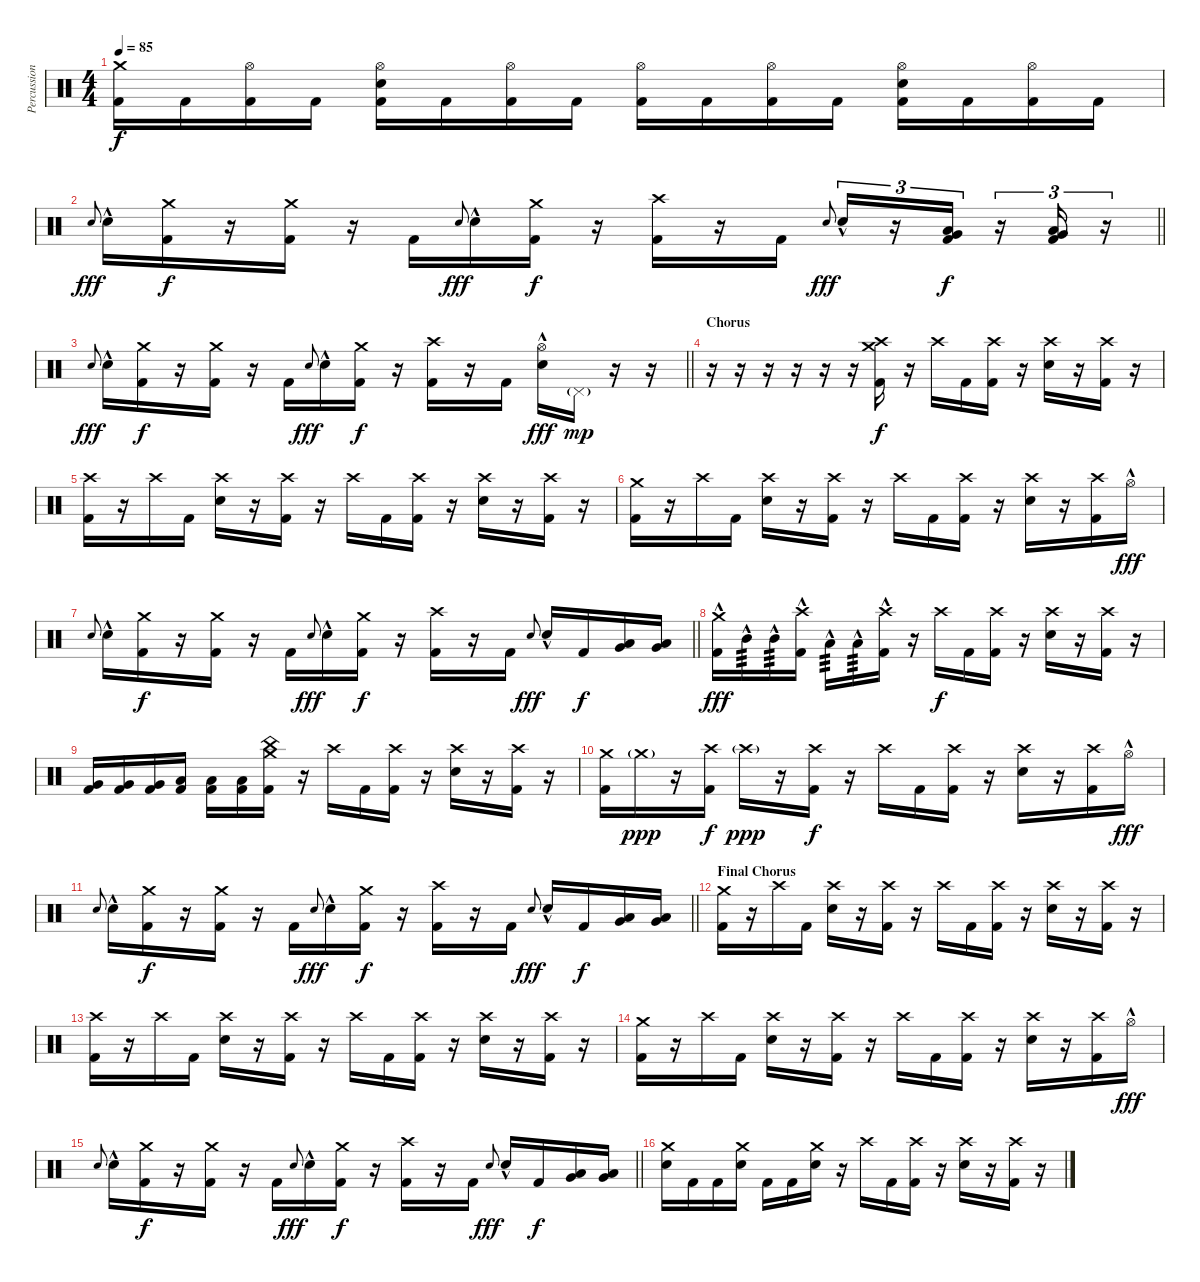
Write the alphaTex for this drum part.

\track ("Percussion" "Percussion") {instrument percussion}
\staff {score}
\articulation defaults
\ts (4 4)
\tempo 85
\clef neutral
\ks c
("Crash medium (hit)" "Kick (hit) 2").16{dy f} "Kick (hit) 2".16 ("Hi-Hat (open)" "Kick (hit) 2").16 "Kick (hit) 2".16 ("Hi-Hat (open)" "Snare (hit) 2" "Kick (hit) 2").16 "Kick (hit) 2".16 ("Hi-Hat (open)" "Kick (hit) 2").16 "Kick (hit) 2".16 ("Hi-Hat (open)" "Kick (hit) 2").16 "Kick (hit) 2".16 ("Hi-Hat (open)" "Kick (hit) 2").16 "Kick (hit) 2".16 ("Hi-Hat (open)" "Snare (hit) 2" "Kick (hit) 2").16 "Kick (hit) 2".16 ("Hi-Hat (open)" "Kick (hit) 2").16 "Kick (hit) 2".16 |
\barLineRight lightlight "Snare (hit) 2".8{gr onbeat dy fff} "Snare (hit) 2"{hac}.16
("Crash medium (hit)" "Kick (hit) 2").16{dy f} r.16 ("Crash medium (hit)" "Kick (hit) 2").16 r.16 "Kick (hit) 2".16 "Snare (hit) 2".8{gr onbeat dy fff} "Snare (hit) 2"{hac}.16 ("Crash medium (hit)" "Kick (hit) 2").16{dy f} r.16 ("Crash high (hit)" "Kick (hit) 2").16 r.16 "Kick (hit) 2".16 "Snare (hit) 2".8{gr onbeat dy fff} "Snare (hit) 2"{hac}.16{tu (3 2)} r.16{tu (3 2)} ("Low Tom (hit)" "Very Low Tom (hit)" "Kick (hit) 2").16{tu (3 2) dy f} r.16{tu (3 2)} ("Very Low Tom (hit)" "Low Floor Tom (hit)" "Kick (hit) 2").16{tu (3 2)} r.16{tu (3 2)} |
\barLineRight lightlight "Snare (hit) 2".8{gr onbeat dy fff} "Snare (hit) 2"{hac}.16
("Crash medium (hit)" "Kick (hit) 2").16{dy f} r.16 ("Crash medium (hit)" "Kick (hit) 2").16 r.16 "Kick (hit) 2".16 "Snare (hit) 2".8{gr onbeat dy fff} "Snare (hit) 2"{hac}.16 ("Crash medium (hit)" "Kick (hit) 2").16{dy f} r.16 ("Crash high (hit)" "Kick (hit) 2").16 r.16 "Kick (hit) 2".16 ("Hi-Hat (open)" "Snare (hit) 2"{hac}).16{dy fff} "Pedal Hi-Hat (hit)"{g}.16{dy mp} r.16 r.16 |
\section ("" "Chorus")
r.16 r.16 r.16 r.16 r.16 r.16 ("Crash medium (hit)" "Crash high (hit)" "Kick (hit) 2").16{dy f} r.16 "Crash high (hit)".16 "Kick (hit) 2".16 ("Crash high (hit)" "Kick (hit) 2").16 r.16 ("Crash high (hit)" "Snare (hit) 2").16 r.16 ("Crash high (hit)" "Kick (hit) 2").16 r.16 |
("Crash high (hit)" "Kick (hit) 2").16 r.16 "Crash high (hit)".16 "Kick (hit) 2".16 ("Crash high (hit)" "Snare (hit) 2").16 r.16 ("Crash high (hit)" "Kick (hit) 2").16 r.16 "Crash high (hit)".16 "Kick (hit) 2".16 ("Crash high (hit)" "Kick (hit) 2").16 r.16 ("Crash high (hit)" "Snare (hit) 2").16 r.16 ("Crash high (hit)" "Kick (hit) 2").16 r.16 |
("Crash medium (hit)" "Kick (hit) 2").16 r.16 "Crash high (hit)".16 "Kick (hit) 2".16 ("Crash high (hit)" "Snare (hit) 2").16 r.16 ("Crash high (hit)" "Kick (hit) 2").16 r.16 "Crash high (hit)".16 "Kick (hit) 2".16 ("Crash high (hit)" "Kick (hit) 2").16 r.16 ("Crash high (hit)" "Snare (hit) 2").16 r.16 ("Crash high (hit)" "Kick (hit) 2").16 "Hi-Hat (open)"{hac}.16{dy fff} |
\barLineRight lightlight "Snare (hit) 2".8{gr onbeat} "Snare (hit) 2"{hac}.16
("Crash medium (hit)" "Kick (hit) 2").16{dy f} r.16 ("Crash medium (hit)" "Kick (hit) 2").16 r.16 "Kick (hit) 2".16 "Snare (hit) 2".8{gr onbeat dy fff} "Snare (hit) 2"{hac}.16 ("Crash medium (hit)" "Kick (hit) 2").16{dy f} r.16 ("Crash high (hit)" "Kick (hit) 2").16 r.16 "Kick (hit) 2".16 "Snare (hit) 2".8{gr onbeat dy fff} "Snare (hit) 2"{hac}.16 "Kick (hit) 2".16{dy f} ("Very Low Tom (hit)" "Low Floor Tom (hit)").16 ("Very Low Tom (hit)" "Low Floor Tom (hit)").16 |
("Crash medium (hit)" "Kick (hit) 2"{hac}).16{dy fff} "Mid Tom (hit)"{hac}.16{tp 3} "Mid Tom (hit)"{hac}.16{tp 3} ("Crash high (hit)" "Kick (hit) 2"{hac}).16 "Low Tom (hit)"{hac}.16{tp 3} "Low Tom (hit)"{hac}.16{tp 3} ("Crash high (hit)" "Kick (hit) 2"{hac}).16 r.16 "Crash high (hit)".16{dy f} "Kick (hit) 2".16 ("Crash high (hit)" "Kick (hit) 2").16 r.16 ("Crash high (hit)" "Snare (hit) 2").16 r.16 ("Crash high (hit)" "Kick (hit) 2").16 r.16 |
("Very Low Tom (hit)" "Kick (hit) 2").16 ("Very Low Tom (hit)" "Kick (hit) 2").16 ("Very Low Tom (hit)" "Kick (hit) 2").16 ("Low Floor Tom (hit)" "Kick (hit) 2").16 ("Low Floor Tom (hit)" "Kick (hit) 2").16 ("Low Floor Tom (hit)" "Kick (hit) 2").16 ("China (hit)" "Crash medium (hit)" "Kick (hit) 2").16 r.16 "Crash high (hit)".16 "Kick (hit) 2".16 ("Crash high (hit)" "Kick (hit) 2").16 r.16 ("Crash high (hit)" "Snare (hit) 2").16 r.16 ("Crash high (hit)" "Kick (hit) 2").16 r.16 |
("Crash medium (hit)" "Kick (hit) 2").16 "Crash medium (hit)"{g}.16{dy ppp} r.16 ("Crash high (hit)" "Kick (hit) 2").16{dy f} "Crash high (hit)"{g}.16{dy ppp} r.16 ("Crash high (hit)" "Kick (hit) 2").16{dy f} r.16 "Crash high (hit)".16 "Kick (hit) 2".16 ("Crash high (hit)" "Kick (hit) 2").16 r.16 ("Crash high (hit)" "Snare (hit) 2").16 r.16 ("Crash high (hit)" "Kick (hit) 2").16 "Hi-Hat (open)"{hac}.16{dy fff} |
\barLineRight lightlight "Snare (hit) 2".8{gr onbeat} "Snare (hit) 2"{hac}.16
("Crash medium (hit)" "Kick (hit) 2").16{dy f} r.16 ("Crash medium (hit)" "Kick (hit) 2").16 r.16 "Kick (hit) 2".16 "Snare (hit) 2".8{gr onbeat dy fff} "Snare (hit) 2"{hac}.16 ("Crash medium (hit)" "Kick (hit) 2").16{dy f} r.16 ("Crash high (hit)" "Kick (hit) 2").16 r.16 "Kick (hit) 2".16 "Snare (hit) 2".8{gr onbeat dy fff} "Snare (hit) 2"{hac}.16 "Kick (hit) 2".16{dy f} ("Very Low Tom (hit)" "Low Floor Tom (hit)").16 ("Very Low Tom (hit)" "Low Floor Tom (hit)").16 |
\section ("" "Final Chorus")
("Crash medium (hit)" "Kick (hit) 2").16 r.16 "Crash high (hit)".16 "Kick (hit) 2".16 ("Crash high (hit)" "Snare (hit) 2").16 r.16 ("Crash high (hit)" "Kick (hit) 2").16 r.16 "Crash high (hit)".16 "Kick (hit) 2".16 ("Crash high (hit)" "Kick (hit) 2").16 r.16 ("Crash high (hit)" "Snare (hit) 2").16 r.16 ("Crash high (hit)" "Kick (hit) 2").16 r.16 |
("Crash high (hit)" "Kick (hit) 2").16 r.16 "Crash high (hit)".16 "Kick (hit) 2".16 ("Crash high (hit)" "Snare (hit) 2").16 r.16 ("Crash high (hit)" "Kick (hit) 2").16 r.16 "Crash high (hit)".16 "Kick (hit) 2".16 ("Crash high (hit)" "Kick (hit) 2").16 r.16 ("Crash high (hit)" "Snare (hit) 2").16 r.16 ("Crash high (hit)" "Kick (hit) 2").16 r.16 |
("Crash medium (hit)" "Kick (hit) 2").16 r.16 "Crash high (hit)".16 "Kick (hit) 2".16 ("Crash high (hit)" "Snare (hit) 2").16 r.16 ("Crash high (hit)" "Kick (hit) 2").16 r.16 "Crash high (hit)".16 "Kick (hit) 2".16 ("Crash high (hit)" "Kick (hit) 2").16 r.16 ("Crash high (hit)" "Snare (hit) 2").16 r.16 ("Crash high (hit)" "Kick (hit) 2").16 "Hi-Hat (open)"{hac}.16{dy fff} |
\barLineRight lightlight "Snare (hit) 2".8{gr onbeat} "Snare (hit) 2"{hac}.16
("Crash medium (hit)" "Kick (hit) 2").16{dy f} r.16 ("Crash medium (hit)" "Kick (hit) 2").16 r.16 "Kick (hit) 2".16 "Snare (hit) 2".8{gr onbeat dy fff} "Snare (hit) 2"{hac}.16 ("Crash medium (hit)" "Kick (hit) 2").16{dy f} r.16 ("Crash high (hit)" "Kick (hit) 2").16 r.16 "Kick (hit) 2".16 "Snare (hit) 2".8{gr onbeat dy fff} "Snare (hit) 2"{hac}.16 "Kick (hit) 2".16{dy f} ("Very Low Tom (hit)" "Low Floor Tom (hit)").16 ("Very Low Tom (hit)" "Low Floor Tom (hit)").16 |
("Crash medium (hit)" "Snare (hit) 2").16 "Kick (hit) 2".16 "Kick (hit) 2".16 ("Crash medium (hit)" "Snare (hit) 2").16 "Kick (hit) 2".16 "Kick (hit) 2".16 ("Crash medium (hit)" "Snare (hit) 2").16 r.16 "Crash high (hit)".16 "Kick (hit) 2".16 ("Crash high (hit)" "Kick (hit) 2").16 r.16 ("Crash high (hit)" "Snare (hit) 2").16 r.16 ("Crash high (hit)" "Kick (hit) 2").16 r.16
